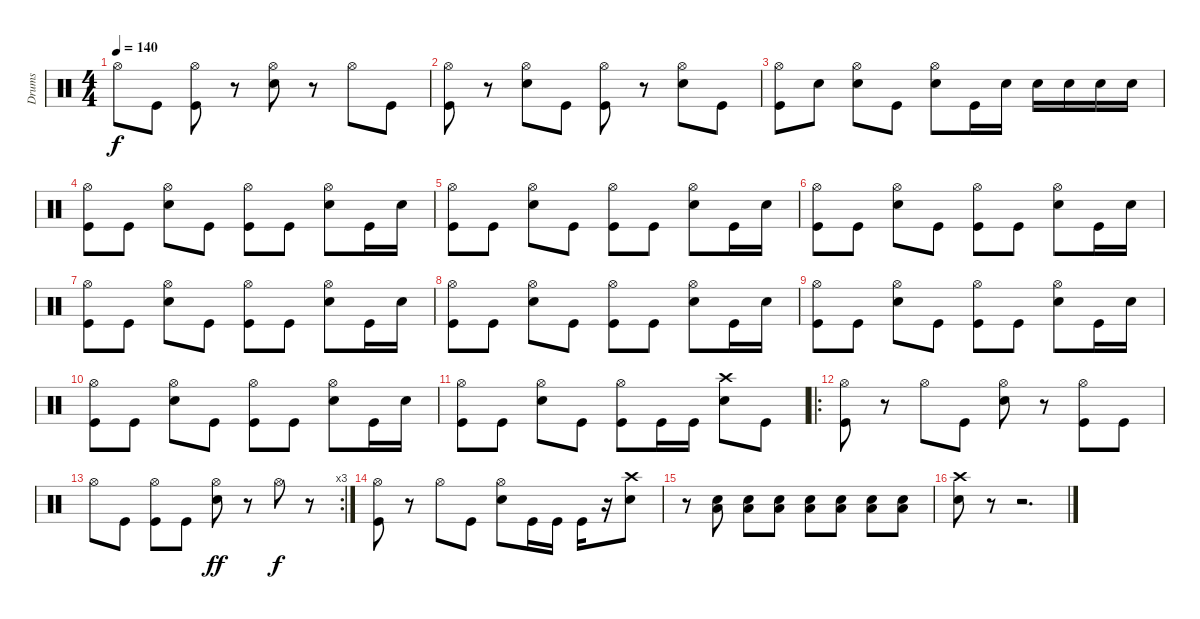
\track ("Drums" "Drums") {instrument percussion}
\staff {score}
\articulation defaults
\ts (4 4)
\tempo 140
\clef neutral
\ks c "Hi-Hat (open)".8{dy f} "Kick (hit)".8
("Hi-Hat (open)" "Kick (hit)").8 r.8 ("Hi-Hat (open)" "Snare (hit) 2").8 r.8 "Hi-Hat (open)".8 "Kick (hit)".8 |
("Hi-Hat (open)" "Kick (hit)").8 r.8 ("Hi-Hat (open)" "Snare (hit) 2").8 "Kick (hit)".8 ("Hi-Hat (open)" "Kick (hit)").8 r.8 ("Hi-Hat (open)" "Snare (hit) 2").8 "Kick (hit)".8 |
("Hi-Hat (open)" "Kick (hit)").8 "Snare (hit) 2".8 ("Hi-Hat (open)" "Snare (hit) 2").8 "Kick (hit)".8 ("Hi-Hat (open)" "Snare (hit) 2").8 "Kick (hit)".16 "Snare (hit) 2".16 "Snare (hit) 2".16 "Snare (hit) 2".16 "Snare (hit) 2".16 "Snare (hit) 2".16 |
("Hi-Hat (open)" "Kick (hit)").8 "Kick (hit)".8 ("Hi-Hat (open)" "Snare (hit) 2").8 "Kick (hit)".8 ("Hi-Hat (open)" "Kick (hit)").8 "Kick (hit)".8 ("Hi-Hat (open)" "Snare (hit) 2").8 "Kick (hit)".16 "Snare (hit) 2".16 |
("Hi-Hat (open)" "Kick (hit)").8 "Kick (hit)".8 ("Hi-Hat (open)" "Snare (hit) 2").8 "Kick (hit)".8 ("Hi-Hat (open)" "Kick (hit)").8 "Kick (hit)".8 ("Hi-Hat (open)" "Snare (hit) 2").8 "Kick (hit)".16 "Snare (hit) 2".16 |
("Hi-Hat (open)" "Kick (hit)").8 "Kick (hit)".8 ("Hi-Hat (open)" "Snare (hit) 2").8 "Kick (hit)".8 ("Hi-Hat (open)" "Kick (hit)").8 "Kick (hit)".8 ("Hi-Hat (open)" "Snare (hit) 2").8 "Kick (hit)".16 "Snare (hit) 2".16 |
("Hi-Hat (open)" "Kick (hit)").8 "Kick (hit)".8 ("Hi-Hat (open)" "Snare (hit) 2").8 "Kick (hit)".8 ("Hi-Hat (open)" "Kick (hit)").8 "Kick (hit)".8 ("Hi-Hat (open)" "Snare (hit) 2").8 "Kick (hit)".16 "Snare (hit) 2".16 |
("Hi-Hat (open)" "Kick (hit)").8 "Kick (hit)".8 ("Hi-Hat (open)" "Snare (hit) 2").8 "Kick (hit)".8 ("Hi-Hat (open)" "Kick (hit)").8 "Kick (hit)".8 ("Hi-Hat (open)" "Snare (hit) 2").8 "Kick (hit)".16 "Snare (hit) 2".16 |
("Hi-Hat (open)" "Kick (hit)").8 "Kick (hit)".8 ("Hi-Hat (open)" "Snare (hit) 2").8 "Kick (hit)".8 ("Hi-Hat (open)" "Kick (hit)").8 "Kick (hit)".8 ("Hi-Hat (open)" "Snare (hit) 2").8 "Kick (hit)".16 "Snare (hit) 2".16 |
("Hi-Hat (open)" "Kick (hit)").8 "Kick (hit)".8 ("Hi-Hat (open)" "Snare (hit) 2").8 "Kick (hit)".8 ("Hi-Hat (open)" "Kick (hit)").8 "Kick (hit)".8 ("Hi-Hat (open)" "Snare (hit) 2").8 "Kick (hit)".16 "Snare (hit) 2".16 |
("Hi-Hat (open)" "Kick (hit)").8 "Kick (hit)".8 ("Hi-Hat (open)" "Snare (hit) 2").8 "Kick (hit)".8 ("Hi-Hat (open)" "Kick (hit)").8 "Kick (hit)".16 "Kick (hit)".16 ("Crash high (hit)" "Snare (hit) 2").8 "Kick (hit)".8 |
\ro
("Hi-Hat (open)" "Kick (hit)").8 r.8 "Hi-Hat (open)".8 "Kick (hit)".8 ("Hi-Hat (open)" "Snare (hit) 2").8 r.8 ("Hi-Hat (open)" "Kick (hit)").8 "Kick (hit)".8 |
\rc 3 "Hi-Hat (open)".8 "Kick (hit)".8
("Hi-Hat (open)" "Kick (hit)").8 "Kick (hit)".8 ("Hi-Hat (open)" "Snare (hit) 2").8{dy ff} r.8 "Hi-Hat (open)".8{dy f} r.8 |
("Hi-Hat (open)" "Kick (hit)").8 r.8 "Hi-Hat (open)".8 "Kick (hit)".8 ("Hi-Hat (open)" "Snare (hit) 2").8 "Kick (hit)".16 "Kick (hit)".16 "Kick (hit)".16 r.16 ("Crash high (hit)" "Snare (hit) 2").8 |
r.8 ("Snare (hit) 2" "Low Floor Tom (hit)").8 ("Snare (hit) 2" "Low Floor Tom (hit)").8 ("Snare (hit) 2" "Low Floor Tom (hit)").8 ("Snare (hit) 2" "Low Floor Tom (hit)").8 ("Snare (hit) 2" "Low Floor Tom (hit)").8 ("Snare (hit) 2" "Low Floor Tom (hit)").8 ("Snare (hit) 2" "Low Floor Tom (hit)").8 |
("Snare (hit) 2" "Crash high (hit)").8 r.8 r.2{d}
